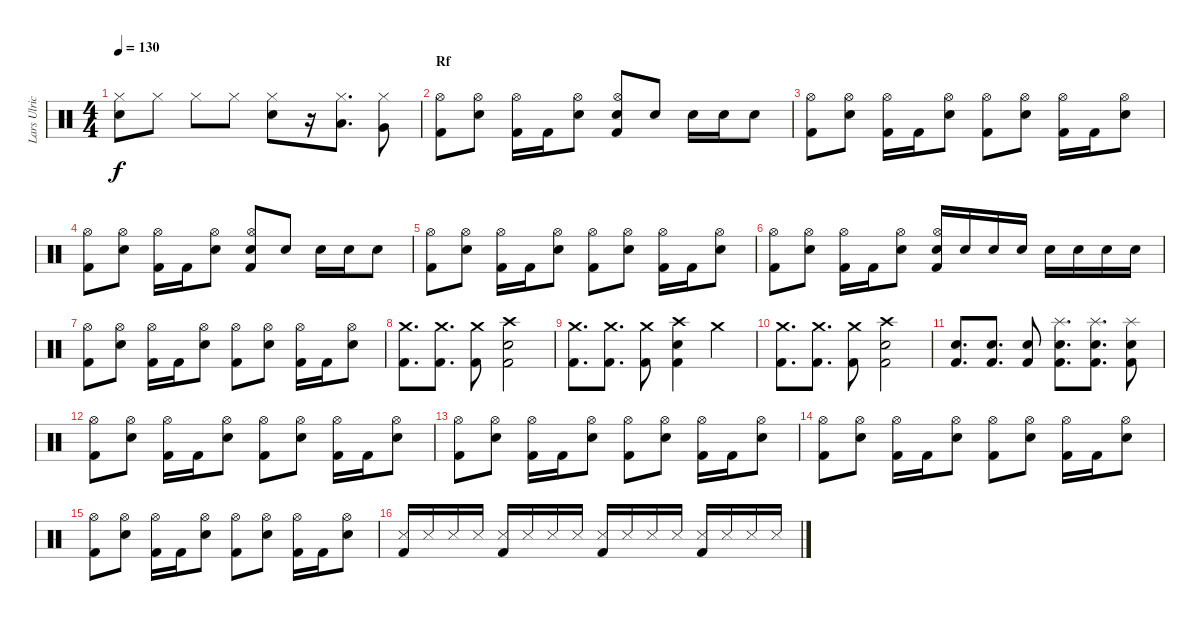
\track ("Lars Ulrich" "Lars Ulric") {instrument percussion}
\staff {score}
\articulation defaults
\ts (4 4)
\tempo 130
\clef neutral
\ks c
("Hi-Hat (closed)" "Electric Snare (hit)").8{dy f} "Hi-Hat (closed)".8 "Hi-Hat (closed)".8 "Hi-Hat (closed)".8 ("Hi-Hat (closed)" "Electric Snare (hit)").8 r.16 ("Hi-Hat (closed)" "Low Tom (hit)").8{d} ("Hi-Hat (closed)" "Very Low Tom (hit)").8 |
\section ("" "Rf")
("Hi-Hat (open)" "Kick (hit) 2").8 ("Hi-Hat (open)" "Electric Snare (hit)").8 ("Hi-Hat (open)" "Kick (hit) 2").16 "Kick (hit) 2".16 ("Hi-Hat (open)" "Electric Snare (hit)").8 ("Hi-Hat (open)" "Electric Snare (hit)" "Kick (hit) 2").8 "Electric Snare (hit)".8 "Electric Snare (hit)".16 "Electric Snare (hit)".16 "Electric Snare (hit)".8 |
("Hi-Hat (open)" "Kick (hit) 2").8 ("Hi-Hat (open)" "Electric Snare (hit)").8 ("Hi-Hat (open)" "Kick (hit) 2").16 "Kick (hit) 2".16 ("Hi-Hat (open)" "Electric Snare (hit)").8 ("Hi-Hat (open)" "Kick (hit) 2").8 ("Hi-Hat (open)" "Electric Snare (hit)").8 ("Hi-Hat (open)" "Kick (hit) 2").16 "Kick (hit) 2".16 ("Hi-Hat (open)" "Electric Snare (hit)").8 |
("Hi-Hat (open)" "Kick (hit) 2").8 ("Hi-Hat (open)" "Electric Snare (hit)").8 ("Hi-Hat (open)" "Kick (hit) 2").16 "Kick (hit) 2".16 ("Hi-Hat (open)" "Electric Snare (hit)").8 ("Hi-Hat (open)" "Electric Snare (hit)" "Kick (hit) 2").8 "Electric Snare (hit)".8 "Electric Snare (hit)".16 "Electric Snare (hit)".16 "Electric Snare (hit)".8 |
("Hi-Hat (open)" "Kick (hit) 2").8 ("Hi-Hat (open)" "Electric Snare (hit)").8 ("Hi-Hat (open)" "Kick (hit) 2").16 "Kick (hit) 2".16 ("Hi-Hat (open)" "Electric Snare (hit)").8 ("Hi-Hat (open)" "Kick (hit) 2").8 ("Hi-Hat (open)" "Electric Snare (hit)").8 ("Hi-Hat (open)" "Kick (hit) 2").16 "Kick (hit) 2".16 ("Hi-Hat (open)" "Electric Snare (hit)").8 |
("Hi-Hat (open)" "Kick (hit) 2").8 ("Hi-Hat (open)" "Electric Snare (hit)").8 ("Hi-Hat (open)" "Kick (hit) 2").16 "Kick (hit) 2".16 ("Hi-Hat (open)" "Electric Snare (hit)").8 ("Hi-Hat (open)" "Electric Snare (hit)" "Kick (hit) 2").16 "Electric Snare (hit)".16 "Electric Snare (hit)".16 "Electric Snare (hit)".16 "Electric Snare (hit)".16 "Electric Snare (hit)".16 "Electric Snare (hit)".16 "Electric Snare (hit)".16 |
("Hi-Hat (open)" "Kick (hit) 2").8 ("Hi-Hat (open)" "Electric Snare (hit)").8 ("Hi-Hat (open)" "Kick (hit) 2").16 "Kick (hit) 2".16 ("Hi-Hat (open)" "Electric Snare (hit)").8 ("Hi-Hat (open)" "Kick (hit) 2").8 ("Hi-Hat (open)" "Electric Snare (hit)").8 ("Hi-Hat (open)" "Kick (hit) 2").16 "Kick (hit) 2".16 ("Hi-Hat (open)" "Electric Snare (hit)").8 |
("Crash medium (hit)" "Kick (hit) 2").8{d} ("Crash medium (hit)" "Kick (hit) 2").8{d} ("Crash medium (hit)" "Kick (hit) 2").8 ("Crash high (hit)" "Electric Snare (hit)" "Kick (hit) 2").2 |
("Crash medium (hit)" "Kick (hit) 2").8{d} ("Crash medium (hit)" "Kick (hit) 2").8{d} ("Crash medium (hit)" "Kick (hit) 2").8 ("Crash high (hit)" "Electric Snare (hit)" "Kick (hit) 2").4 "Crash medium (hit)".4 |
("Crash medium (hit)" "Kick (hit) 2").8{d} ("Crash medium (hit)" "Kick (hit) 2").8{d} ("Crash medium (hit)" "Kick (hit) 2").8 ("Crash high (hit)" "Electric Snare (hit)" "Kick (hit) 2").2 |
("Electric Snare (hit)" "Kick (hit) 2").8{d} ("Electric Snare (hit)" "Kick (hit) 2").8{d} ("Electric Snare (hit)" "Kick (hit) 2").8 ("Splash (hit)" "Electric Snare (hit)" "Kick (hit) 2").8{d} ("Splash (hit)" "Electric Snare (hit)" "Kick (hit) 2").8{d} ("Splash (hit)" "Electric Snare (hit)" "Kick (hit) 2").8 |
("Hi-Hat (open)" "Kick (hit) 2").8 ("Hi-Hat (open)" "Electric Snare (hit)").8 ("Hi-Hat (open)" "Kick (hit) 2").16 "Kick (hit) 2".16 ("Hi-Hat (open)" "Electric Snare (hit)").8 ("Hi-Hat (open)" "Kick (hit) 2").8 ("Hi-Hat (open)" "Electric Snare (hit)").8 ("Hi-Hat (open)" "Kick (hit) 2").16 "Kick (hit) 2".16 ("Hi-Hat (open)" "Electric Snare (hit)").8 |
("Hi-Hat (open)" "Kick (hit) 2").8 ("Hi-Hat (open)" "Electric Snare (hit)").8 ("Hi-Hat (open)" "Kick (hit) 2").16 "Kick (hit) 2".16 ("Hi-Hat (open)" "Electric Snare (hit)").8 ("Hi-Hat (open)" "Kick (hit) 2").8 ("Hi-Hat (open)" "Electric Snare (hit)").8 ("Hi-Hat (open)" "Kick (hit) 2").16 "Kick (hit) 2".16 ("Hi-Hat (open)" "Electric Snare (hit)").8 |
("Hi-Hat (open)" "Kick (hit) 2").8 ("Hi-Hat (open)" "Electric Snare (hit)").8 ("Hi-Hat (open)" "Kick (hit) 2").16 "Kick (hit) 2".16 ("Hi-Hat (open)" "Electric Snare (hit)").8 ("Hi-Hat (open)" "Kick (hit) 2").8 ("Hi-Hat (open)" "Electric Snare (hit)").8 ("Hi-Hat (open)" "Kick (hit) 2").16 "Kick (hit) 2".16 ("Hi-Hat (open)" "Electric Snare (hit)").8 |
("Hi-Hat (open)" "Kick (hit) 2").8 ("Hi-Hat (open)" "Electric Snare (hit)").8 ("Hi-Hat (open)" "Kick (hit) 2").16 "Kick (hit) 2".16 ("Hi-Hat (open)" "Electric Snare (hit)").8 ("Hi-Hat (open)" "Kick (hit) 2").8 ("Hi-Hat (open)" "Electric Snare (hit)").8 ("Hi-Hat (open)" "Kick (hit) 2").16 "Kick (hit) 2".16 ("Hi-Hat (open)" "Electric Snare (hit)").8 |
("Metronome (hit)" "Kick (hit) 2").16 "Snare (side stick) 3".16 "Snare (side stick) 3".16 "Snare (side stick) 3".16 ("Metronome (hit)" "Kick (hit) 2").16 "Snare (side stick) 3".16 "Snare (side stick) 3".16 "Snare (side stick) 3".16 ("Metronome (hit)" "Kick (hit) 2").16 "Snare (side stick) 3".16 "Snare (side stick) 3".16 "Snare (side stick) 3".16 ("Metronome (hit)" "Kick (hit) 2").16 "Snare (side stick) 3".16 "Snare (side stick) 3".16 "Snare (side stick) 3".16
